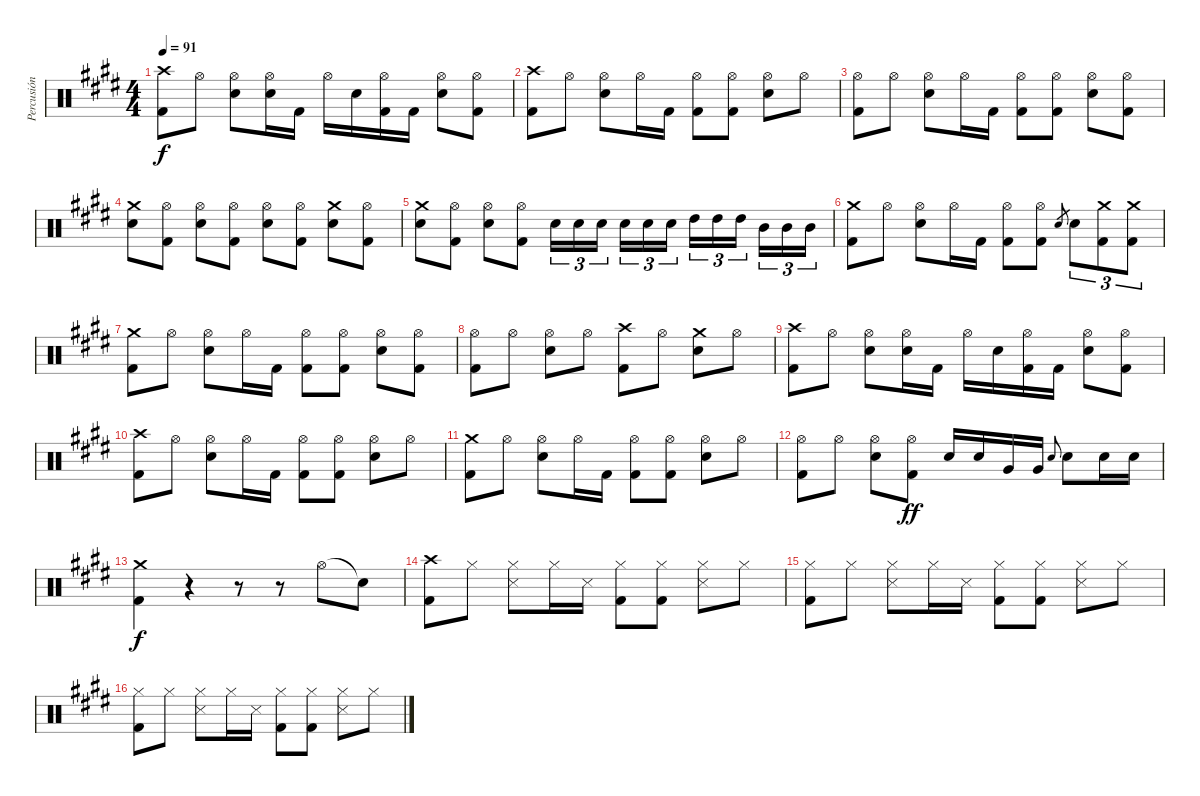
\track ("Percusión" "Percusión") {instrument percussion}
\staff {score}
\articulation defaults
\ts (4 4)
\tempo 91
\clef neutral
\ks c#minor
("Crash high (hit)" "Kick (hit) 2").8{dy f} "Hi-Hat (open)".8 ("Hi-Hat (open)" "Electric Snare (hit)").8 ("Hi-Hat (open)" "Electric Snare (hit)").16 "Kick (hit) 2".16 "Hi-Hat (open)".16 "Electric Snare (hit)".16 ("Hi-Hat (open)" "Kick (hit) 2").16 "Kick (hit) 2".16 ("Hi-Hat (open)" "Electric Snare (hit)").8 ("Hi-Hat (open)" "Kick (hit) 2").8 |
("Crash high (hit)" "Kick (hit) 2").8 "Hi-Hat (open)".8 ("Hi-Hat (open)" "Electric Snare (hit)").8 "Hi-Hat (open)".16 "Kick (hit) 2".16 ("Hi-Hat (open)" "Kick (hit) 2").8 ("Hi-Hat (open)" "Kick (hit) 2").8 ("Hi-Hat (open)" "Electric Snare (hit)").8 "Hi-Hat (open)".8 |
\ks e
("Hi-Hat (open)" "Kick (hit) 2").8 "Hi-Hat (open)".8 ("Hi-Hat (open)" "Electric Snare (hit)").8 "Hi-Hat (open)".16 "Kick (hit) 2".16 ("Hi-Hat (open)" "Kick (hit) 2").8 ("Hi-Hat (open)" "Kick (hit) 2").8 ("Hi-Hat (open)" "Electric Snare (hit)").8 ("Hi-Hat (open)" "Kick (hit) 2").8 |
\ks c#minor
("Crash medium (hit)" "Electric Snare (hit)").8 ("Hi-Hat (open)" "Kick (hit) 2").8 ("Hi-Hat (open)" "Electric Snare (hit)").8 ("Hi-Hat (open)" "Kick (hit) 2").8 ("Hi-Hat (open)" "Electric Snare (hit)").8 ("Hi-Hat (open)" "Kick (hit) 2").8 ("Crash medium (hit)" "Electric Snare (hit)").8 ("Hi-Hat (open)" "Kick (hit) 2").8 |
("Crash medium (hit)" "Electric Snare (hit)").8 ("Hi-Hat (open)" "Kick (hit) 2").8 ("Hi-Hat (open)" "Electric Snare (hit)").8 ("Hi-Hat (open)" "Kick (hit) 2").8 "Electric Snare (hit)".16{tu (3 2)} "Electric Snare (hit)".16{tu (3 2)} "Electric Snare (hit)".16{tu (3 2) beam splitsecondary} "Electric Snare (hit)".16{tu (3 2)} "Electric Snare (hit)".16{tu (3 2)} "Electric Snare (hit)".16{tu (3 2)} "High Tom (hit)".16{tu (3 2)} "High Tom (hit)".16{tu (3 2)} "High Tom (hit)".16{tu (3 2) beam splitsecondary} "Mid Tom (hit)".16{tu (3 2)} "Mid Tom (hit)".16{tu (3 2)} "Mid Tom (hit)".16{tu (3 2)} |
("Crash medium (hit)" "Kick (hit) 2").8 "Hi-Hat (open)".8 ("Hi-Hat (open)" "Electric Snare (hit)").8 "Hi-Hat (open)".16 "Kick (hit) 2".16 ("Hi-Hat (open)" "Kick (hit) 2").8 ("Hi-Hat (open)" "Kick (hit) 2").8 "Electric Snare (hit)".8{gr} "Electric Snare (hit)".8{tu (3 2)} ("Crash medium (hit)" "Kick (hit) 2").8{tu (3 2)} ("Crash medium (hit)" "Kick (hit) 2").8{tu (3 2)} |
("Crash medium (hit)" "Kick (hit) 2").8 "Hi-Hat (open)".8 ("Hi-Hat (open)" "Electric Snare (hit)").8 "Hi-Hat (open)".16 "Kick (hit) 2".16 ("Hi-Hat (open)" "Kick (hit) 2").8 ("Hi-Hat (open)" "Kick (hit) 2").8 ("Hi-Hat (open)" "Electric Snare (hit)").8 ("Hi-Hat (open)" "Kick (hit) 2").8 |
\ks e
("Hi-Hat (open)" "Kick (hit) 2").8 "Hi-Hat (open)".8 ("Hi-Hat (open)" "Electric Snare (hit)").8 "Hi-Hat (open)".8 ("Crash high (hit)" "Kick (hit) 2").8 "Hi-Hat (open)".8 ("Crash medium (hit)" "Electric Snare (hit)").8 "Hi-Hat (open)".8 |
\ks c#minor
("Crash high (hit)" "Kick (hit) 2").8 "Hi-Hat (open)".8 ("Hi-Hat (open)" "Electric Snare (hit)").8 ("Hi-Hat (open)" "Electric Snare (hit)").16 "Kick (hit) 2".16 "Hi-Hat (open)".16 "Electric Snare (hit)".16 ("Hi-Hat (open)" "Kick (hit) 2").16 "Kick (hit) 2".16 ("Hi-Hat (open)" "Electric Snare (hit)").8 ("Hi-Hat (open)" "Kick (hit) 2").8 |
("Crash high (hit)" "Kick (hit) 2").8 "Hi-Hat (open)".8 ("Hi-Hat (open)" "Electric Snare (hit)").8 "Hi-Hat (open)".16 "Kick (hit) 2".16 ("Hi-Hat (open)" "Kick (hit) 2").8 ("Hi-Hat (open)" "Kick (hit) 2").8 ("Hi-Hat (open)" "Electric Snare (hit)").8 "Hi-Hat (open)".8 |
\ks e
("Crash medium (hit)" "Kick (hit) 2").8 "Hi-Hat (open)".8 ("Hi-Hat (open)" "Electric Snare (hit)").8 "Hi-Hat (open)".16 "Kick (hit) 2".16 ("Hi-Hat (open)" "Kick (hit) 2").8 ("Hi-Hat (open)" "Kick (hit) 2").8 ("Hi-Hat (open)" "Electric Snare (hit)").8 "Hi-Hat (open)".8 |
\ks c#minor
("Hi-Hat (open)" "Kick (hit) 2").8 "Hi-Hat (open)".8 ("Hi-Hat (open)" "Electric Snare (hit)").8 ("Hi-Hat (open)" "Kick (hit) 2").8{dy ff} "Electric Snare (hit)".16 "Electric Snare (hit)".16 "Very Low Tom (hit)".16 "Very Low Tom (hit)".16 "Electric Snare (hit)".8{gr onbeat} "Electric Snare (hit)".8 "Electric Snare (hit)".16 "Electric Snare (hit)".16 |
\ks e
("Crash medium (hit)" "Kick (hit) 2").4{dy f volume 0} r.4 r.8 r.8 "Hi-Hat (open)".8 "Snare (hit)"{t}.8 |
\ks c#minor
("Crash high (hit)" "Kick (hit) 2").8{volume 7} "Hi-Hat (closed)".8 ("Hi-Hat (closed)" "Metronome (hit)").8 "Hi-Hat (closed)".16 "Metronome (hit)".16 ("Hi-Hat (closed)" "Kick (hit) 2").8 ("Hi-Hat (closed)" "Kick (hit) 2").8 ("Hi-Hat (closed)" "Metronome (hit)").8 "Hi-Hat (closed)".8 |
("Hi-Hat (closed)" "Kick (hit) 2").8 "Hi-Hat (closed)".8 ("Hi-Hat (closed)" "Metronome (hit)").8 "Hi-Hat (closed)".16 "Metronome (hit)".16 ("Hi-Hat (closed)" "Kick (hit) 2").8 ("Hi-Hat (closed)" "Kick (hit) 2").8 ("Hi-Hat (closed)" "Metronome (hit)").8 "Hi-Hat (closed)".8 |
("Hi-Hat (closed)" "Kick (hit) 2").8 "Hi-Hat (closed)".8 ("Hi-Hat (closed)" "Metronome (hit)").8 "Hi-Hat (closed)".16 "Metronome (hit)".16 ("Hi-Hat (closed)" "Kick (hit) 2").8 ("Hi-Hat (closed)" "Kick (hit) 2").8 ("Hi-Hat (closed)" "Metronome (hit)").8 "Hi-Hat (closed)".8
